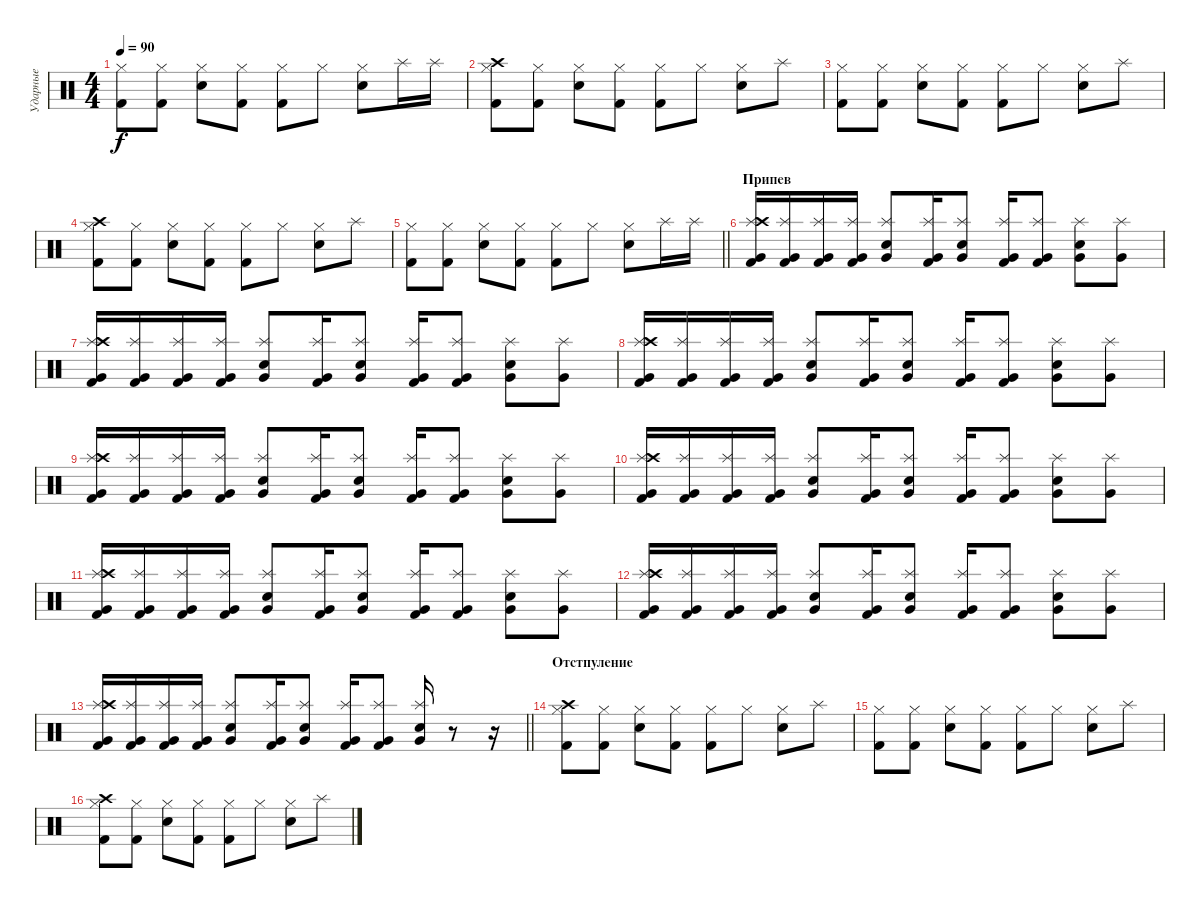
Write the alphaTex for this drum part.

\track ("Ударные" "Ударные") {instrument percussion}
\staff {score}
\articulation defaults
\ts (4 4)
\tempo 90
\clef neutral
\ks c
("Hi-Hat (closed)" "Kick (hit) 2").8{dy f} ("Hi-Hat (closed)" "Kick (hit) 2").8 ("Hi-Hat (closed)" "Snare (hit) 2").8 ("Hi-Hat (closed)" "Kick (hit) 2").8 ("Hi-Hat (closed)" "Kick (hit) 2").8 "Hi-Hat (closed)".8 ("Hi-Hat (closed)" "Snare (hit) 2").8 "Splash (hit)".16 "Splash (hit)".16 |
("Hi-Hat (closed)" "Crash high (hit)" "Kick (hit) 2").8 ("Hi-Hat (closed)" "Kick (hit) 2").8 ("Hi-Hat (closed)" "Snare (hit) 2").8 ("Hi-Hat (closed)" "Kick (hit) 2").8 ("Hi-Hat (closed)" "Kick (hit) 2").8 "Hi-Hat (closed)".8 ("Hi-Hat (closed)" "Snare (hit) 2").8 "Splash (hit)".8 |
("Hi-Hat (closed)" "Kick (hit) 2").8 ("Hi-Hat (closed)" "Kick (hit) 2").8 ("Hi-Hat (closed)" "Snare (hit) 2").8 ("Hi-Hat (closed)" "Kick (hit) 2").8 ("Hi-Hat (closed)" "Kick (hit) 2").8 "Hi-Hat (closed)".8 ("Hi-Hat (closed)" "Snare (hit) 2").8 "Splash (hit)".8 |
("Hi-Hat (closed)" "Crash high (hit)" "Kick (hit) 2").8 ("Hi-Hat (closed)" "Kick (hit) 2").8 ("Hi-Hat (closed)" "Snare (hit) 2").8 ("Hi-Hat (closed)" "Kick (hit) 2").8 ("Hi-Hat (closed)" "Kick (hit) 2").8 "Hi-Hat (closed)".8 ("Hi-Hat (closed)" "Snare (hit) 2").8 "Splash (hit)".8 |
\barLineRight lightlight
("Hi-Hat (closed)" "Kick (hit) 2").8 ("Hi-Hat (closed)" "Kick (hit) 2").8 ("Hi-Hat (closed)" "Snare (hit) 2").8 ("Hi-Hat (closed)" "Kick (hit) 2").8 ("Hi-Hat (closed)" "Kick (hit) 2").8 "Hi-Hat (closed)".8 ("Hi-Hat (closed)" "Snare (hit) 2").8 "Splash (hit)".16 "Splash (hit)".16 |
\section ("" "Припев")
("Splash (hit)" "Crash high (hit)" "Very Low Tom (hit)" "Kick (hit) 2").16 ("Splash (hit)" "Very Low Tom (hit)" "Kick (hit) 2").16 ("Splash (hit)" "Very Low Tom (hit)" "Kick (hit) 2").16 ("Splash (hit)" "Very Low Tom (hit)" "Kick (hit) 2").16 ("Splash (hit)" "Snare (hit) 2" "Very Low Tom (hit)").8 ("Splash (hit)" "Very Low Tom (hit)" "Kick (hit) 2").16 ("Splash (hit)" "Snare (hit) 2" "Very Low Tom (hit)").8 ("Splash (hit)" "Very Low Tom (hit)" "Kick (hit) 2").16 ("Splash (hit)" "Very Low Tom (hit)" "Kick (hit) 2").8 ("Splash (hit)" "Snare (hit) 2" "Very Low Tom (hit)").8 ("Splash (hit)" "Very Low Tom (hit)").8 |
("Splash (hit)" "Crash high (hit)" "Very Low Tom (hit)" "Kick (hit) 2").16 ("Splash (hit)" "Very Low Tom (hit)" "Kick (hit) 2").16 ("Splash (hit)" "Very Low Tom (hit)" "Kick (hit) 2").16 ("Splash (hit)" "Very Low Tom (hit)" "Kick (hit) 2").16 ("Splash (hit)" "Snare (hit) 2" "Very Low Tom (hit)").8 ("Splash (hit)" "Very Low Tom (hit)" "Kick (hit) 2").16 ("Splash (hit)" "Snare (hit) 2" "Very Low Tom (hit)").8 ("Splash (hit)" "Very Low Tom (hit)" "Kick (hit) 2").16 ("Splash (hit)" "Very Low Tom (hit)" "Kick (hit) 2").8 ("Splash (hit)" "Snare (hit) 2" "Very Low Tom (hit)").8 ("Splash (hit)" "Very Low Tom (hit)").8 |
("Splash (hit)" "Crash high (hit)" "Very Low Tom (hit)" "Kick (hit) 2").16 ("Splash (hit)" "Very Low Tom (hit)" "Kick (hit) 2").16 ("Splash (hit)" "Very Low Tom (hit)" "Kick (hit) 2").16 ("Splash (hit)" "Very Low Tom (hit)" "Kick (hit) 2").16 ("Splash (hit)" "Snare (hit) 2" "Very Low Tom (hit)").8 ("Splash (hit)" "Very Low Tom (hit)" "Kick (hit) 2").16 ("Splash (hit)" "Snare (hit) 2" "Very Low Tom (hit)").8 ("Splash (hit)" "Very Low Tom (hit)" "Kick (hit) 2").16 ("Splash (hit)" "Very Low Tom (hit)" "Kick (hit) 2").8 ("Splash (hit)" "Snare (hit) 2" "Very Low Tom (hit)").8 ("Splash (hit)" "Very Low Tom (hit)").8 |
("Splash (hit)" "Crash high (hit)" "Very Low Tom (hit)" "Kick (hit) 2").16 ("Splash (hit)" "Very Low Tom (hit)" "Kick (hit) 2").16 ("Splash (hit)" "Very Low Tom (hit)" "Kick (hit) 2").16 ("Splash (hit)" "Very Low Tom (hit)" "Kick (hit) 2").16 ("Splash (hit)" "Snare (hit) 2" "Very Low Tom (hit)").8 ("Splash (hit)" "Very Low Tom (hit)" "Kick (hit) 2").16 ("Splash (hit)" "Snare (hit) 2" "Very Low Tom (hit)").8 ("Splash (hit)" "Very Low Tom (hit)" "Kick (hit) 2").16 ("Splash (hit)" "Very Low Tom (hit)" "Kick (hit) 2").8 ("Splash (hit)" "Snare (hit) 2" "Very Low Tom (hit)").8 ("Splash (hit)" "Very Low Tom (hit)").8 |
("Splash (hit)" "Crash high (hit)" "Very Low Tom (hit)" "Kick (hit) 2").16 ("Splash (hit)" "Very Low Tom (hit)" "Kick (hit) 2").16 ("Splash (hit)" "Very Low Tom (hit)" "Kick (hit) 2").16 ("Splash (hit)" "Very Low Tom (hit)" "Kick (hit) 2").16 ("Splash (hit)" "Snare (hit) 2" "Very Low Tom (hit)").8 ("Splash (hit)" "Very Low Tom (hit)" "Kick (hit) 2").16 ("Splash (hit)" "Snare (hit) 2" "Very Low Tom (hit)").8 ("Splash (hit)" "Very Low Tom (hit)" "Kick (hit) 2").16 ("Splash (hit)" "Very Low Tom (hit)" "Kick (hit) 2").8 ("Splash (hit)" "Snare (hit) 2" "Very Low Tom (hit)").8 ("Splash (hit)" "Very Low Tom (hit)").8 |
("Splash (hit)" "Crash high (hit)" "Very Low Tom (hit)" "Kick (hit) 2").16 ("Splash (hit)" "Very Low Tom (hit)" "Kick (hit) 2").16 ("Splash (hit)" "Very Low Tom (hit)" "Kick (hit) 2").16 ("Splash (hit)" "Very Low Tom (hit)" "Kick (hit) 2").16 ("Splash (hit)" "Snare (hit) 2" "Very Low Tom (hit)").8 ("Splash (hit)" "Very Low Tom (hit)" "Kick (hit) 2").16 ("Splash (hit)" "Snare (hit) 2" "Very Low Tom (hit)").8 ("Splash (hit)" "Very Low Tom (hit)" "Kick (hit) 2").16 ("Splash (hit)" "Very Low Tom (hit)" "Kick (hit) 2").8 ("Splash (hit)" "Snare (hit) 2" "Very Low Tom (hit)").8 ("Splash (hit)" "Very Low Tom (hit)").8 |
("Splash (hit)" "Crash high (hit)" "Very Low Tom (hit)" "Kick (hit) 2").16 ("Splash (hit)" "Very Low Tom (hit)" "Kick (hit) 2").16 ("Splash (hit)" "Very Low Tom (hit)" "Kick (hit) 2").16 ("Splash (hit)" "Very Low Tom (hit)" "Kick (hit) 2").16 ("Splash (hit)" "Snare (hit) 2" "Very Low Tom (hit)").8 ("Splash (hit)" "Very Low Tom (hit)" "Kick (hit) 2").16 ("Splash (hit)" "Snare (hit) 2" "Very Low Tom (hit)").8 ("Splash (hit)" "Very Low Tom (hit)" "Kick (hit) 2").16 ("Splash (hit)" "Very Low Tom (hit)" "Kick (hit) 2").8 ("Splash (hit)" "Snare (hit) 2" "Very Low Tom (hit)").8 ("Splash (hit)" "Very Low Tom (hit)").8 |
\barLineRight lightlight
("Splash (hit)" "Crash high (hit)" "Very Low Tom (hit)" "Kick (hit) 2").16 ("Splash (hit)" "Very Low Tom (hit)" "Kick (hit) 2").16 ("Splash (hit)" "Very Low Tom (hit)" "Kick (hit) 2").16 ("Splash (hit)" "Very Low Tom (hit)" "Kick (hit) 2").16 ("Splash (hit)" "Snare (hit) 2" "Very Low Tom (hit)").8 ("Splash (hit)" "Very Low Tom (hit)" "Kick (hit) 2").16 ("Splash (hit)" "Snare (hit) 2" "Very Low Tom (hit)").8 ("Splash (hit)" "Very Low Tom (hit)" "Kick (hit) 2").16 ("Splash (hit)" "Very Low Tom (hit)" "Kick (hit) 2").8 ("Splash (hit)" "Snare (hit) 2" "Very Low Tom (hit)").16 r.8 r.16 |
\section ("" "Отстпуление")
("Hi-Hat (closed)" "Crash high (hit)" "Kick (hit) 2").8{volume 4} ("Hi-Hat (closed)" "Kick (hit) 2").8 ("Hi-Hat (closed)" "Snare (hit) 2").8 ("Hi-Hat (closed)" "Kick (hit) 2").8 ("Hi-Hat (closed)" "Kick (hit) 2").8 "Hi-Hat (closed)".8 ("Hi-Hat (closed)" "Snare (hit) 2").8 "Splash (hit)".8 |
("Hi-Hat (closed)" "Kick (hit) 2").8 ("Hi-Hat (closed)" "Kick (hit) 2").8 ("Hi-Hat (closed)" "Snare (hit) 2").8 ("Hi-Hat (closed)" "Kick (hit) 2").8 ("Hi-Hat (closed)" "Kick (hit) 2").8 "Hi-Hat (closed)".8 ("Hi-Hat (closed)" "Snare (hit) 2").8 "Splash (hit)".8 |
("Hi-Hat (closed)" "Crash high (hit)" "Kick (hit) 2").8 ("Hi-Hat (closed)" "Kick (hit) 2").8 ("Hi-Hat (closed)" "Snare (hit) 2").8 ("Hi-Hat (closed)" "Kick (hit) 2").8 ("Hi-Hat (closed)" "Kick (hit) 2").8 "Hi-Hat (closed)".8 ("Hi-Hat (closed)" "Snare (hit) 2").8 "Splash (hit)".8
